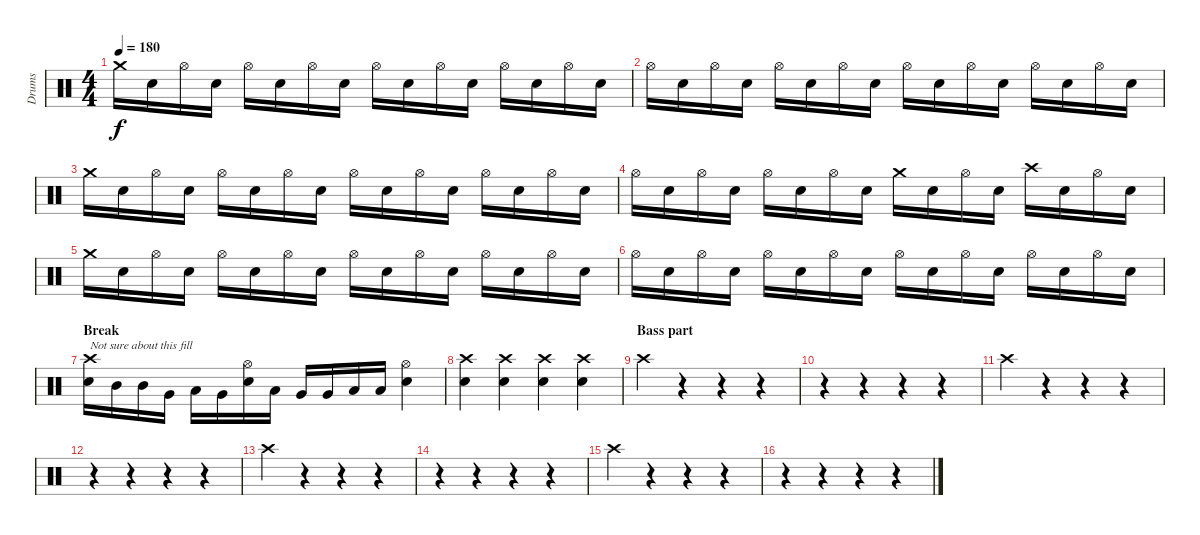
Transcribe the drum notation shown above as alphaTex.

\track ("Drums" "Drums") {instrument percussion}
\staff {score}
\articulation defaults
\ts (4 4)
\tempo 180
\clef neutral
\ks c "Crash medium (hit)".16{dy f} "Electric Snare (hit)".16 "Hi-Hat (open)".16 "Electric Snare (hit)".16 "Hi-Hat (open)".16 "Electric Snare (hit)".16 "Hi-Hat (open)".16 "Electric Snare (hit)".16 "Hi-Hat (open)".16 "Electric Snare (hit)".16 "Hi-Hat (open)".16 "Electric Snare (hit)".16 "Hi-Hat (open)".16 "Electric Snare (hit)".16 "Hi-Hat (open)".16 "Electric Snare (hit)".16
|
"Hi-Hat (open)".16 "Electric Snare (hit)".16 "Hi-Hat (open)".16 "Electric Snare (hit)".16 "Hi-Hat (open)".16 "Electric Snare (hit)".16 "Hi-Hat (open)".16 "Electric Snare (hit)".16 "Hi-Hat (open)".16 "Electric Snare (hit)".16 "Hi-Hat (open)".16 "Electric Snare (hit)".16 "Hi-Hat (open)".16 "Electric Snare (hit)".16 "Hi-Hat (open)".16 "Electric Snare (hit)".16 |
"Crash medium (hit)".16 "Electric Snare (hit)".16 "Hi-Hat (open)".16 "Electric Snare (hit)".16 "Hi-Hat (open)".16 "Electric Snare (hit)".16 "Hi-Hat (open)".16 "Electric Snare (hit)".16 "Hi-Hat (open)".16 "Electric Snare (hit)".16 "Hi-Hat (open)".16 "Electric Snare (hit)".16 "Hi-Hat (open)".16 "Electric Snare (hit)".16 "Hi-Hat (open)".16 "Electric Snare (hit)".16 |
"Hi-Hat (open)".16 "Electric Snare (hit)".16 "Hi-Hat (open)".16 "Electric Snare (hit)".16 "Hi-Hat (open)".16 "Electric Snare (hit)".16 "Hi-Hat (open)".16 "Electric Snare (hit)".16 "Crash medium (hit)".16 "Electric Snare (hit)".16 "Hi-Hat (open)".16 "Electric Snare (hit)".16 "Crash high (hit)".16 "Electric Snare (hit)".16 "Hi-Hat (open)".16 "Electric Snare (hit)".16 |
"Crash medium (hit)".16 "Electric Snare (hit)".16 "Hi-Hat (open)".16 "Electric Snare (hit)".16 "Hi-Hat (open)".16 "Electric Snare (hit)".16 "Hi-Hat (open)".16 "Electric Snare (hit)".16 "Hi-Hat (open)".16 "Electric Snare (hit)".16 "Hi-Hat (open)".16 "Electric Snare (hit)".16 "Hi-Hat (open)".16 "Electric Snare (hit)".16 "Hi-Hat (open)".16 "Electric Snare (hit)".16 |
"Hi-Hat (open)".16 "Electric Snare (hit)".16 "Hi-Hat (open)".16 "Electric Snare (hit)".16 "Hi-Hat (open)".16 "Electric Snare (hit)".16 "Hi-Hat (open)".16 "Electric Snare (hit)".16 "Hi-Hat (open)".16 "Electric Snare (hit)".16 "Hi-Hat (open)".16 "Electric Snare (hit)".16 "Hi-Hat (open)".16 "Electric Snare (hit)".16 "Hi-Hat (open)".16 "Electric Snare (hit)".16 |
\section ("" "Break")
("Crash high (hit)" "Electric Snare (hit)").16{txt "Not sure about this fill"} "Mid Tom (hit)".16 "Mid Tom (hit)".16 "Very Low Tom (hit)".16 "Low Tom (hit)".16 "Very Low Tom (hit)".16 ("Hi-Hat (open)" "Electric Snare (hit)").16 "Low Floor Tom (hit)".16 "Very Low Tom (hit)".16 "Very Low Tom (hit)".16 "Low Floor Tom (hit)".16 "Low Floor Tom (hit)".16 ("Hi-Hat (open)" "Electric Snare (hit)").4 |
("Crash high (hit)" "Electric Snare (hit)").4 ("Crash high (hit)" "Electric Snare (hit)").4 ("Crash high (hit)" "Electric Snare (hit)").4 ("Crash high (hit)" "Electric Snare (hit)").4 |
\section ("" "Bass part")
"Crash high (hit)".4 r.4 r.4 r.4 |
r.4 r.4 r.4 r.4 |
"Crash high (hit)".4 r.4 r.4 r.4 |
r.4 r.4 r.4 r.4 |
"Crash high (hit)".4 r.4 r.4 r.4 |
r.4 r.4 r.4 r.4 |
"Crash high (hit)".4 r.4 r.4 r.4 |
r.4 r.4 r.4 r.4
